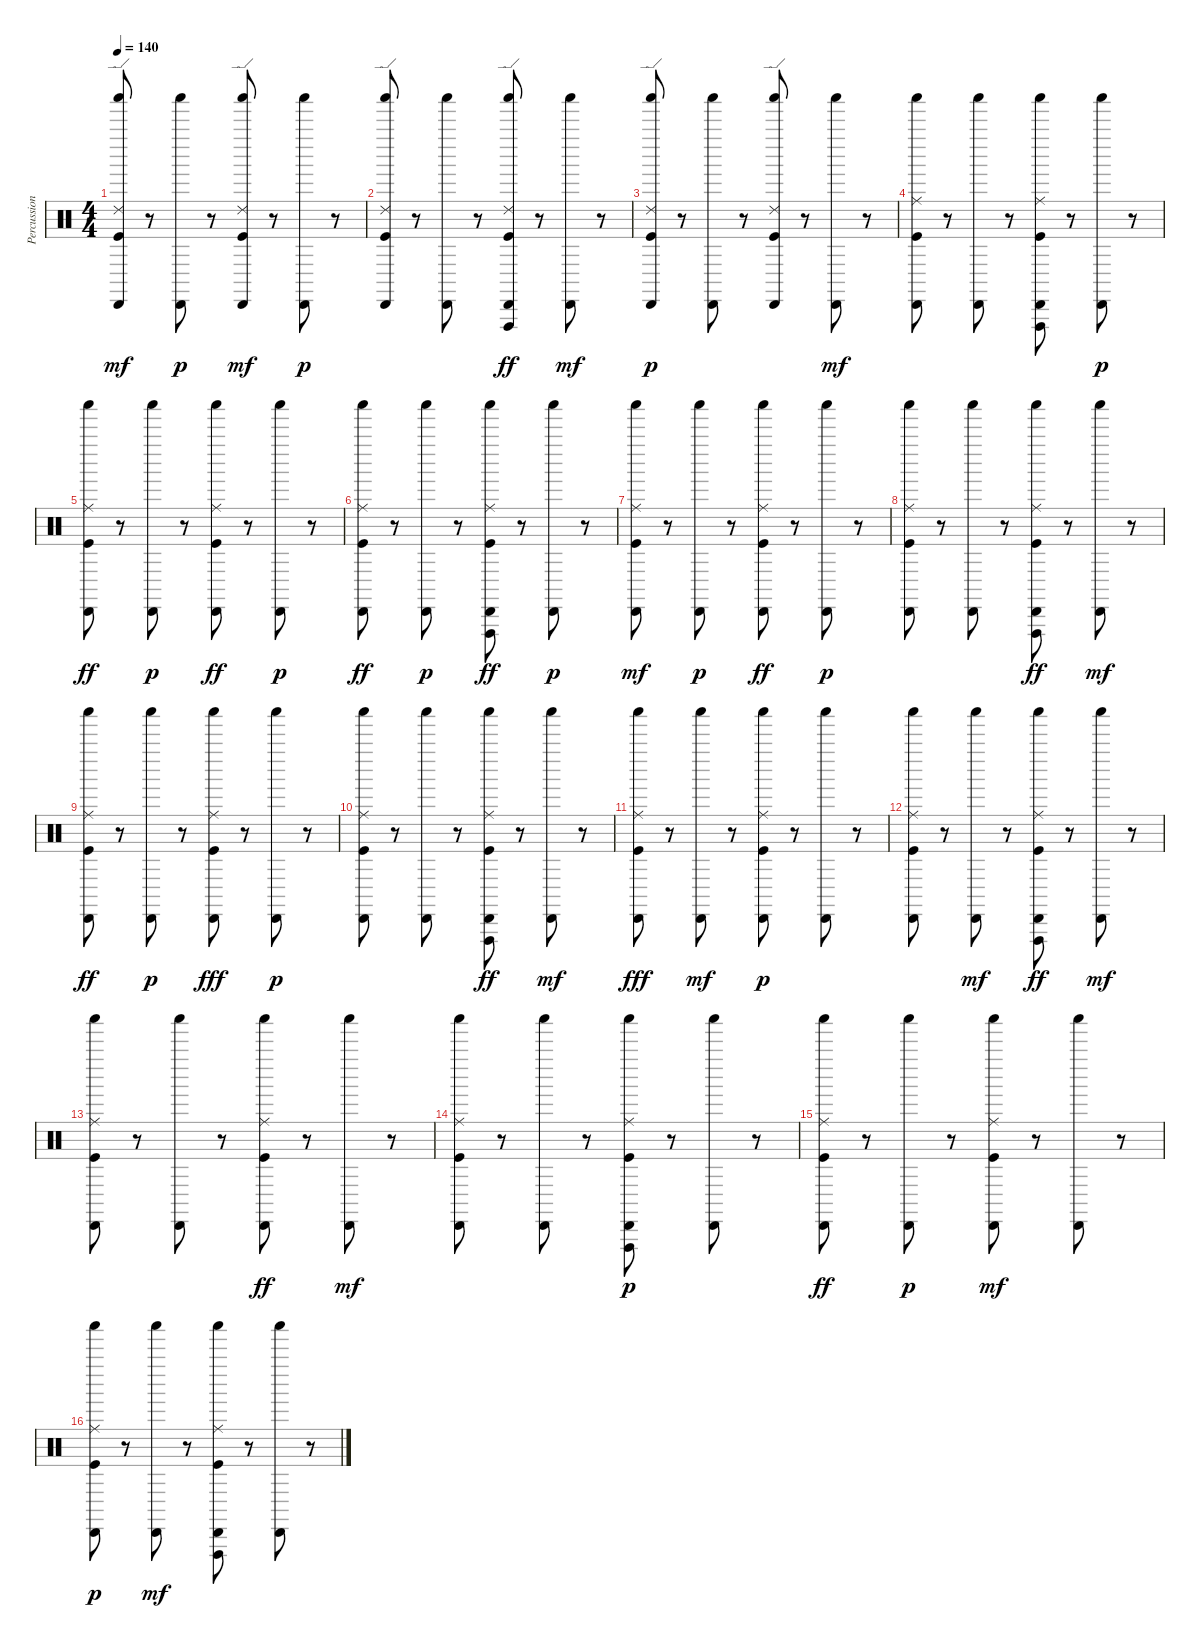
\track ("Percussion Std Drums" "Percussion") {instrument percussion}
\staff {score}
\articulation defaults
\ts (4 4)
\tempo 140
\clef neutral
\ks c
("Ride (edge) 2" "Kick (hit)" "Shaker (hit)" "Cabasa (hit)").8{dy mf} r.8 ("Cabasa (hit)" "Shaker (hit)").8{dy p} r.8 ("Shaker (hit)" "Ride (edge) 2" "Cabasa (hit)" "Kick (hit)").8{dy mf} r.8 ("Cabasa (hit)" "Shaker (hit)").8{dy p} r.8 |
("Cabasa (hit)" "Ride (edge) 2" "Shaker (hit)" "Kick (hit)").8 r.8 ("Cabasa (hit)" "Shaker (hit)").8 r.8 ("Cabasa (hit)" "Vibraslap (hit)" "Shaker (hit)" "Kick (hit)" "Ride (edge) 2").8{dy ff} r.8 ("Shaker (hit)" "Cabasa (hit)").8{dy mf} r.8 |
("Cabasa (hit)" "Ride (edge) 2" "Shaker (hit)" "Kick (hit)").8{dy p} r.8 ("Cabasa (hit)" "Shaker (hit)").8 r.8 ("Cabasa (hit)" "Ride (edge) 2" "Shaker (hit)" "Kick (hit)").8 r.8 ("Shaker (hit)" "Cabasa (hit)").8{dy mf} r.8 |
("Shaker (hit)" "Ride (middle)" "Kick (hit)" "Cabasa (hit)").8 r.8 ("Shaker (hit)" "Cabasa (hit)").8 r.8 ("Kick (hit)" "Vibraslap (hit)" "Ride (middle)" "Shaker (hit)" "Cabasa (hit)").8 r.8 ("Cabasa (hit)" "Shaker (hit)").8{dy p} r.8 |
("Kick (hit)" "Cabasa (hit)" "Shaker (hit)" "Ride (middle)").8{dy ff} r.8 ("Cabasa (hit)" "Shaker (hit)").8{dy p} r.8 ("Cabasa (hit)" "Kick (hit)" "Shaker (hit)" "Ride (middle)").8{dy ff} r.8 ("Cabasa (hit)" "Shaker (hit)").8{dy p} r.8 |
("Shaker (hit)" "Kick (hit)" "Cabasa (hit)" "Ride (middle)").8{dy ff} r.8 ("Cabasa (hit)" "Shaker (hit)").8{dy p} r.8 ("Shaker (hit)" "Cabasa (hit)" "Kick (hit)" "Vibraslap (hit)" "Ride (middle)").8{dy ff} r.8 ("Cabasa (hit)" "Shaker (hit)").8{dy p} r.8 |
("Ride (middle)" "Kick (hit)" "Shaker (hit)" "Cabasa (hit)").8{dy mf} r.8 ("Cabasa (hit)" "Shaker (hit)").8{dy p} r.8 ("Kick (hit)" "Cabasa (hit)" "Shaker (hit)" "Ride (middle)").8{dy ff} r.8 ("Cabasa (hit)" "Shaker (hit)").8{dy p} r.8 |
("Ride (middle)" "Cabasa (hit)" "Shaker (hit)" "Kick (hit)").8 r.8 ("Cabasa (hit)" "Shaker (hit)").8 r.8 ("Kick (hit)" "Cabasa (hit)" "Shaker (hit)" "Vibraslap (hit)" "Ride (middle)").8{dy ff} r.8 ("Shaker (hit)" "Cabasa (hit)").8{dy mf} r.8 |
("Shaker (hit)" "Kick (hit)" "Cabasa (hit)" "Ride (middle)").8{dy ff} r.8 ("Cabasa (hit)" "Shaker (hit)").8{dy p} r.8 ("Cabasa (hit)" "Shaker (hit)" "Ride (middle)" "Kick (hit)").8{dy fff} r.8 ("Cabasa (hit)" "Shaker (hit)").8{dy p} r.8 |
("Ride (middle)" "Kick (hit)" "Cabasa (hit)" "Shaker (hit)").8 r.8 ("Cabasa (hit)" "Shaker (hit)").8 r.8 ("Shaker (hit)" "Kick (hit)" "Cabasa (hit)" "Ride (middle)" "Vibraslap (hit)").8{dy ff} r.8 ("Shaker (hit)" "Cabasa (hit)").8{dy mf} r.8 |
("Cabasa (hit)" "Shaker (hit)" "Ride (middle)" "Kick (hit)").8{dy fff} r.8 ("Shaker (hit)" "Cabasa (hit)").8{dy mf} r.8 ("Cabasa (hit)" "Ride (middle)" "Kick (hit)" "Shaker (hit)").8{dy p} r.8 ("Cabasa (hit)" "Shaker (hit)").8 r.8 |
("Ride (middle)" "Cabasa (hit)" "Shaker (hit)" "Kick (hit)").8 r.8 ("Shaker (hit)" "Cabasa (hit)").8{dy mf} r.8 ("Kick (hit)" "Ride (middle)" "Shaker (hit)" "Cabasa (hit)" "Vibraslap (hit)").8{dy ff} r.8 ("Shaker (hit)" "Cabasa (hit)").8{dy mf} r.8 |
("Kick (hit)" "Shaker (hit)" "Ride (middle)" "Cabasa (hit)").8 r.8 ("Shaker (hit)" "Cabasa (hit)").8 r.8 ("Shaker (hit)" "Cabasa (hit)" "Kick (hit)" "Ride (middle)").8{dy ff} r.8 ("Shaker (hit)" "Cabasa (hit)").8{dy mf} r.8 |
("Ride (middle)" "Shaker (hit)" "Cabasa (hit)" "Kick (hit)").8 r.8 ("Shaker (hit)" "Cabasa (hit)").8 r.8 ("Kick (hit)" "Ride (middle)" "Cabasa (hit)" "Vibraslap (hit)" "Shaker (hit)").8{dy p} r.8 ("Cabasa (hit)" "Shaker (hit)").8 r.8 |
("Shaker (hit)" "Cabasa (hit)" "Ride (middle)" "Kick (hit)").8{dy ff} r.8 ("Cabasa (hit)" "Shaker (hit)").8{dy p} r.8 ("Shaker (hit)" "Kick (hit)" "Ride (middle)" "Cabasa (hit)").8{dy mf} r.8 ("Shaker (hit)" "Cabasa (hit)").8 r.8 |
("Ride (middle)" "Kick (hit)" "Cabasa (hit)" "Shaker (hit)").8{dy p} r.8 ("Shaker (hit)" "Cabasa (hit)").8{dy mf} r.8 ("Kick (hit)" "Ride (middle)" "Vibraslap (hit)" "Shaker (hit)" "Cabasa (hit)").8 r.8 ("Shaker (hit)" "Cabasa (hit)").8 r.8
